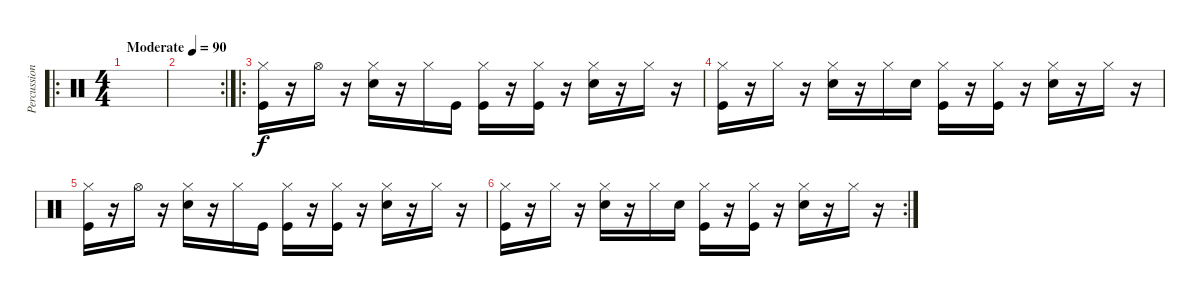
\track ("Percussion" "Percussion") {instrument percussion}
\staff {score}
\articulation defaults
\ro
\ts (4 4)
\tempo (90 "Moderate")
\clef neutral
\ks c
|
\rc 2
|
\ro
("Hi-Hat (closed)" "Kick (hit)").16 r.16 "Hi-Hat (open)".16 r.16 ("Hi-Hat (closed)" "Electric Snare (hit)").16 r.16 "Hi-Hat (closed)".16 "Kick (hit)".16 ("Hi-Hat (closed)" "Kick (hit)").16 r.16 ("Hi-Hat (closed)" "Kick (hit)").16 r.16 ("Hi-Hat (closed)" "Electric Snare (hit)").16 r.16 "Hi-Hat (closed)".16 r.16 |
("Hi-Hat (closed)" "Kick (hit)").16 r.16 "Hi-Hat (closed)".16 r.16 ("Hi-Hat (closed)" "Electric Snare (hit)").16 r.16 "Hi-Hat (closed)".16 "Electric Snare (hit)".16 ("Hi-Hat (closed)" "Kick (hit)").16 r.16 ("Hi-Hat (closed)" "Kick (hit)").16 r.16 ("Hi-Hat (closed)" "Electric Snare (hit)").16 r.16 "Hi-Hat (closed)".16 r.16 |
("Hi-Hat (closed)" "Kick (hit)").16 r.16 "Hi-Hat (open)".16 r.16 ("Hi-Hat (closed)" "Electric Snare (hit)").16 r.16 "Hi-Hat (closed)".16 "Kick (hit)".16 ("Hi-Hat (closed)" "Kick (hit)").16 r.16 ("Hi-Hat (closed)" "Kick (hit)").16 r.16 ("Hi-Hat (closed)" "Electric Snare (hit)").16 r.16 "Hi-Hat (closed)".16 r.16 |
\rc 2
("Hi-Hat (closed)" "Kick (hit)").16 r.16 "Hi-Hat (closed)".16 r.16 ("Hi-Hat (closed)" "Electric Snare (hit)").16 r.16 "Hi-Hat (closed)".16 "Electric Snare (hit)".16 ("Hi-Hat (closed)" "Kick (hit)").16 r.16 ("Hi-Hat (closed)" "Kick (hit)").16 r.16 ("Hi-Hat (closed)" "Electric Snare (hit)").16 r.16 "Hi-Hat (closed)".16 r.16
